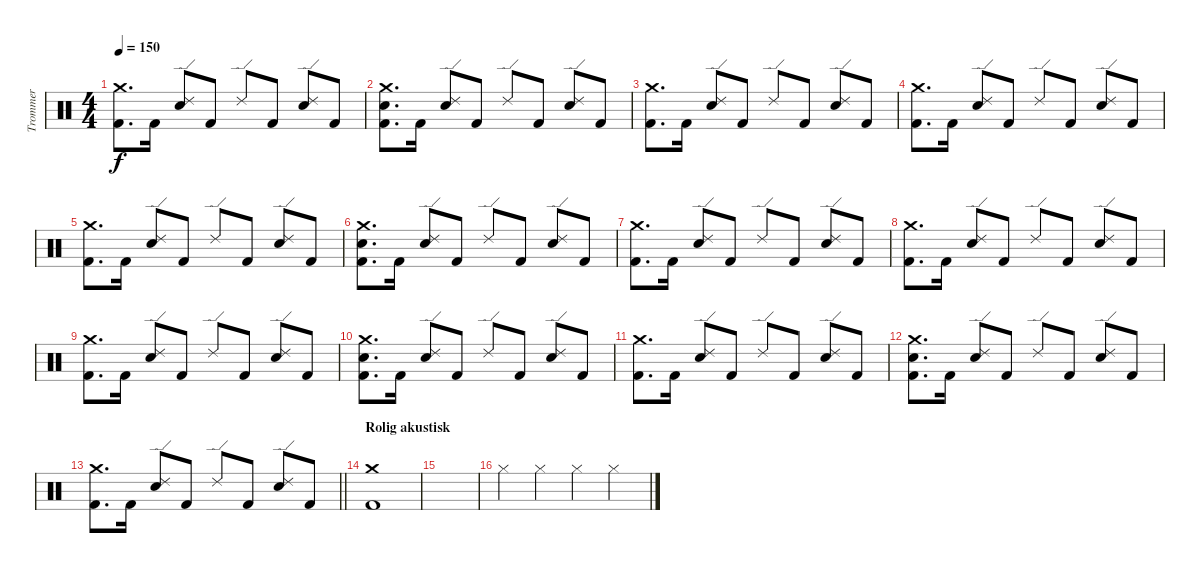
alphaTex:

\track ("Trommer" "Trommer") {instrument percussion}
\staff {score}
\articulation defaults
\ts (4 4)
\tempo 150
\clef neutral
\ks c
("Crash medium (hit)" "Kick (hit) 2").8{d dy f} "Kick (hit) 2".16 ("Ride (edge) 2" "Snare (hit) 2").8 "Kick (hit) 2".8 "Ride (edge) 2".8 "Kick (hit) 2".8 ("Ride (edge) 2" "Snare (hit) 2").8 "Kick (hit) 2".8 |
("Crash medium (hit)" "Snare (hit) 2" "Kick (hit) 2").8{d} "Kick (hit) 2".16 ("Ride (edge) 2" "Snare (hit) 2").8 "Kick (hit) 2".8 "Ride (edge) 2".8 "Kick (hit) 2".8 ("Ride (edge) 2" "Snare (hit) 2").8 "Kick (hit) 2".8 |
("Crash medium (hit)" "Kick (hit) 2").8{d} "Kick (hit) 2".16 ("Ride (edge) 2" "Snare (hit) 2").8 "Kick (hit) 2".8 "Ride (edge) 2".8 "Kick (hit) 2".8 ("Ride (edge) 2" "Snare (hit) 2").8 "Kick (hit) 2".8 |
("Crash medium (hit)" "Kick (hit) 2").8{d} "Kick (hit) 2".16 ("Ride (edge) 2" "Snare (hit) 2").8 "Kick (hit) 2".8 "Ride (edge) 2".8 "Kick (hit) 2".8 ("Ride (edge) 2" "Snare (hit) 2").8 "Kick (hit) 2".8 |
("Crash medium (hit)" "Kick (hit) 2").8{d} "Kick (hit) 2".16 ("Ride (edge) 2" "Snare (hit) 2").8 "Kick (hit) 2".8 "Ride (edge) 2".8 "Kick (hit) 2".8 ("Ride (edge) 2" "Snare (hit) 2").8 "Kick (hit) 2".8 |
("Crash medium (hit)" "Snare (hit) 2" "Kick (hit) 2").8{d} "Kick (hit) 2".16 ("Ride (edge) 2" "Snare (hit) 2").8 "Kick (hit) 2".8 "Ride (edge) 2".8 "Kick (hit) 2".8 ("Ride (edge) 2" "Snare (hit) 2").8 "Kick (hit) 2".8 |
("Crash medium (hit)" "Kick (hit) 2").8{d} "Kick (hit) 2".16 ("Ride (edge) 2" "Snare (hit) 2").8 "Kick (hit) 2".8 "Ride (edge) 2".8 "Kick (hit) 2".8 ("Ride (edge) 2" "Snare (hit) 2").8 "Kick (hit) 2".8 |
("Crash medium (hit)" "Kick (hit) 2").8{d} "Kick (hit) 2".16 ("Ride (edge) 2" "Snare (hit) 2").8 "Kick (hit) 2".8 "Ride (edge) 2".8 "Kick (hit) 2".8 ("Ride (edge) 2" "Snare (hit) 2").8 "Kick (hit) 2".8 |
("Crash medium (hit)" "Kick (hit) 2").8{d} "Kick (hit) 2".16 ("Ride (edge) 2" "Snare (hit) 2").8 "Kick (hit) 2".8 "Ride (edge) 2".8 "Kick (hit) 2".8 ("Ride (edge) 2" "Snare (hit) 2").8 "Kick (hit) 2".8 |
("Crash medium (hit)" "Snare (hit) 2" "Kick (hit) 2").8{d} "Kick (hit) 2".16 ("Ride (edge) 2" "Snare (hit) 2").8 "Kick (hit) 2".8 "Ride (edge) 2".8 "Kick (hit) 2".8 ("Ride (edge) 2" "Snare (hit) 2").8 "Kick (hit) 2".8 |
("Crash medium (hit)" "Kick (hit) 2").8{d} "Kick (hit) 2".16 ("Ride (edge) 2" "Snare (hit) 2").8 "Kick (hit) 2".8 "Ride (edge) 2".8 "Kick (hit) 2".8 ("Ride (edge) 2" "Snare (hit) 2").8 "Kick (hit) 2".8 |
("Crash medium (hit)" "Snare (hit) 2" "Kick (hit) 2").8{d} "Kick (hit) 2".16 ("Ride (edge) 2" "Snare (hit) 2").8 "Kick (hit) 2".8 "Ride (edge) 2".8 "Kick (hit) 2".8 ("Ride (edge) 2" "Snare (hit) 2").8 "Kick (hit) 2".8 |
\barLineRight lightlight
("Crash medium (hit)" "Kick (hit) 2").8{d} "Kick (hit) 2".16 ("Ride (edge) 2" "Snare (hit) 2").8 "Kick (hit) 2".8 "Ride (edge) 2".8 "Kick (hit) 2".8 ("Ride (edge) 2" "Snare (hit) 2").8 "Kick (hit) 2".8 |
\section ("" "Rolig akustisk")
("Crash medium (hit)" "Kick (hit) 2").1 |
|
"Hi-Hat (closed)".4 "Hi-Hat (closed)".4 "Hi-Hat (closed)".4 "Hi-Hat (closed)".4
